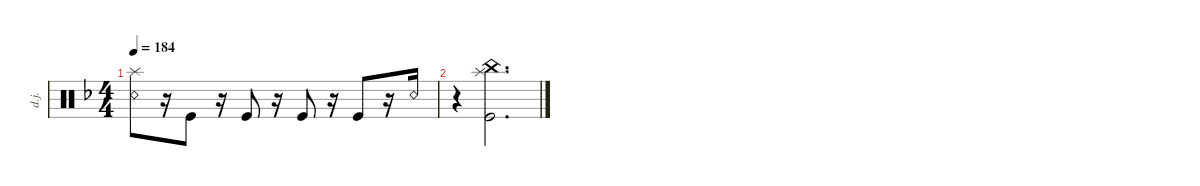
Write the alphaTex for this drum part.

\defaultSystemsLayout 4
\hideDynamics
\bracketExtendMode nobrackets
\otherSystemsTrackNameOrientation horizontal
\track ("Drumkit Jason" "d.j.") {instrument percussion}
\staff {score}
\articulation defaults
\ts (4 4)
\tempo 184
\clef neutral
\ks dminor
("Snare (rim shot)" "Splash (hit)").8{dy ff} r.16 "Kick (hit)".8 r.16 "Kick (hit)".8 r.16 "Kick (hit)".8 r.16 "Kick (hit)".8 r.16 "Snare (rim shot)".16 |
r.4 ("Splash (hit)" "China (hit)" "Kick (hit)").2{d}
